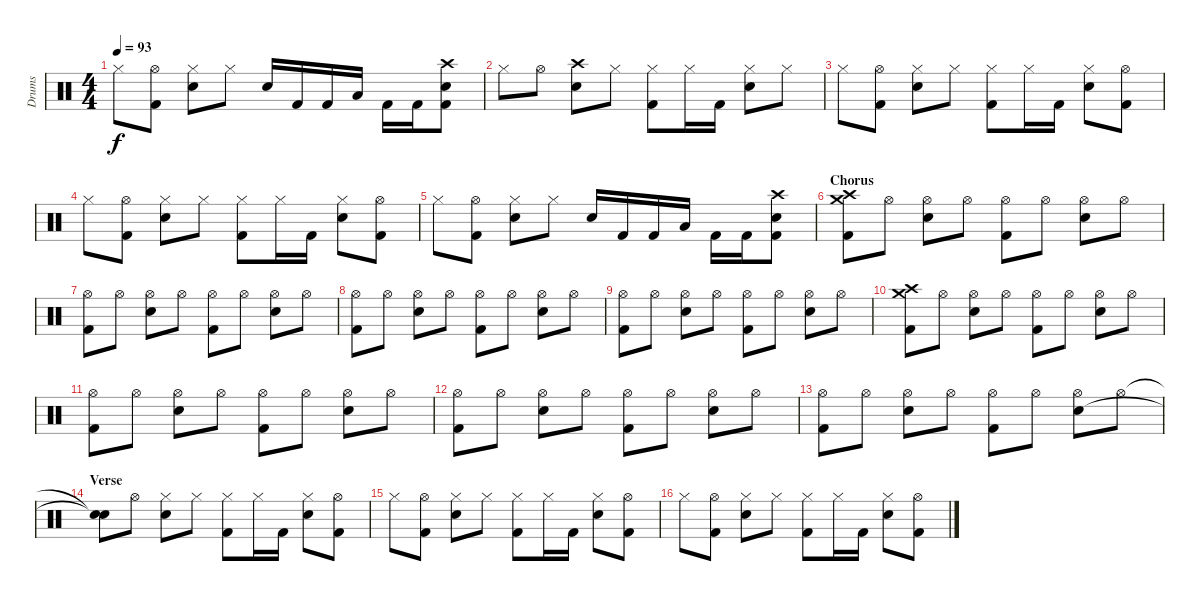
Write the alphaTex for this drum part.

\track ("Drums" "Drums") {instrument percussion}
\staff {score}
\articulation defaults
\ts (4 4)
\tempo 93
\clef neutral
\ks c "Hi-Hat (closed)".8{dy f}
("Hi-Hat (open)" "Kick (hit) 2").8 ("Hi-Hat (closed)" "Electric Snare (hit)").8 "Hi-Hat (closed)".8 "Electric Snare (hit)".16 "Kick (hit) 2".16 "Kick (hit) 2".16 "Low Tom (hit)".16 "Kick (hit) 2".16 "Kick (hit) 2".16 ("Crash high (hit)" "Electric Snare (hit)" "Kick (hit) 2").8 |
"Hi-Hat (closed)".8 "Hi-Hat (open)".8 ("Crash high (hit)" "Electric Snare (hit)").8 "Hi-Hat (closed)".8 ("Hi-Hat (closed)" "Kick (hit) 2").8 "Hi-Hat (closed)".16 "Kick (hit) 2".16 ("Hi-Hat (closed)" "Electric Snare (hit)").8 "Hi-Hat (closed)".8 |
"Hi-Hat (closed)".8 ("Hi-Hat (open)" "Kick (hit) 2").8 ("Hi-Hat (closed)" "Electric Snare (hit)").8 "Hi-Hat (closed)".8 ("Hi-Hat (closed)" "Kick (hit) 2").8 "Hi-Hat (closed)".16 "Kick (hit) 2".16 ("Hi-Hat (closed)" "Electric Snare (hit)").8 ("Hi-Hat (open)" "Kick (hit) 2").8 |
"Hi-Hat (closed)".8 ("Hi-Hat (open)" "Kick (hit) 2").8 ("Hi-Hat (closed)" "Electric Snare (hit)").8 "Hi-Hat (closed)".8 ("Hi-Hat (closed)" "Kick (hit) 2").8 "Hi-Hat (closed)".16 "Kick (hit) 2".16 ("Hi-Hat (closed)" "Electric Snare (hit)").8 ("Hi-Hat (open)" "Kick (hit) 2").8 |
"Hi-Hat (closed)".8 ("Hi-Hat (open)" "Kick (hit) 2").8 ("Hi-Hat (closed)" "Electric Snare (hit)").8 "Hi-Hat (closed)".8 "Electric Snare (hit)".16 "Kick (hit) 2".16 "Kick (hit) 2".16 "Low Tom (hit)".16 "Kick (hit) 2".16 "Kick (hit) 2".16 ("Crash high (hit)" "Electric Snare (hit)" "Kick (hit) 2").8 |
\section ("" "Chorus")
("Crash high (hit)" "Crash medium (hit)" "Kick (hit) 2").8 "Hi-Hat (open)".8 ("Hi-Hat (open)" "Electric Snare (hit)").8 "Hi-Hat (open)".8 ("Hi-Hat (open)" "Kick (hit) 2").8 "Hi-Hat (open)".8 ("Hi-Hat (open)" "Electric Snare (hit)").8 "Hi-Hat (open)".8 |
("Hi-Hat (open)" "Kick (hit) 2").8 "Hi-Hat (open)".8 ("Hi-Hat (open)" "Electric Snare (hit)").8 "Hi-Hat (open)".8 ("Hi-Hat (open)" "Kick (hit) 2").8 "Hi-Hat (open)".8 ("Hi-Hat (open)" "Electric Snare (hit)").8 "Hi-Hat (open)".8 |
("Hi-Hat (open)" "Kick (hit) 2").8 "Hi-Hat (open)".8 ("Hi-Hat (open)" "Electric Snare (hit)").8 "Hi-Hat (open)".8 ("Hi-Hat (open)" "Kick (hit) 2").8 "Hi-Hat (open)".8 ("Hi-Hat (open)" "Electric Snare (hit)").8 "Hi-Hat (open)".8 |
("Hi-Hat (open)" "Kick (hit) 2").8 "Hi-Hat (open)".8 ("Hi-Hat (open)" "Electric Snare (hit)").8 "Hi-Hat (open)".8 ("Hi-Hat (open)" "Kick (hit) 2").8 "Hi-Hat (open)".8 ("Hi-Hat (open)" "Electric Snare (hit)").8 "Hi-Hat (open)".8 |
("Crash high (hit)" "Crash medium (hit)" "Kick (hit) 2").8 "Hi-Hat (open)".8 ("Hi-Hat (open)" "Electric Snare (hit)").8 "Hi-Hat (open)".8 ("Hi-Hat (open)" "Kick (hit) 2").8 "Hi-Hat (open)".8 ("Hi-Hat (open)" "Electric Snare (hit)").8 "Hi-Hat (open)".8 |
("Hi-Hat (open)" "Kick (hit) 2").8 "Hi-Hat (open)".8 ("Hi-Hat (open)" "Electric Snare (hit)").8 "Hi-Hat (open)".8 ("Hi-Hat (open)" "Kick (hit) 2").8 "Hi-Hat (open)".8 ("Hi-Hat (open)" "Electric Snare (hit)").8 "Hi-Hat (open)".8 |
("Hi-Hat (open)" "Kick (hit) 2").8 "Hi-Hat (open)".8 ("Hi-Hat (open)" "Electric Snare (hit)").8 "Hi-Hat (open)".8 ("Hi-Hat (open)" "Kick (hit) 2").8 "Hi-Hat (open)".8 ("Hi-Hat (open)" "Electric Snare (hit)").8 "Hi-Hat (open)".8 |
("Hi-Hat (open)" "Kick (hit) 2").8 "Hi-Hat (open)".8 ("Hi-Hat (open)" "Electric Snare (hit)").8 "Hi-Hat (open)".8 ("Hi-Hat (open)" "Kick (hit) 2").8 "Hi-Hat (open)".8 ("Hi-Hat (open)" "Electric Snare (hit)").8 "Hi-Hat (open)".8 |
\section ("" "Verse")
("Snare (hit)"{t} "Snare (hit)"{t}).8 "Hi-Hat (open)".8 ("Hi-Hat (closed)" "Electric Snare (hit)").8 "Hi-Hat (closed)".8 ("Hi-Hat (closed)" "Kick (hit) 2").8 "Hi-Hat (closed)".16 "Kick (hit) 2".16 ("Hi-Hat (closed)" "Electric Snare (hit)").8 ("Hi-Hat (open)" "Kick (hit) 2").8 |
"Hi-Hat (closed)".8 ("Hi-Hat (open)" "Kick (hit) 2").8 ("Hi-Hat (closed)" "Electric Snare (hit)").8 "Hi-Hat (closed)".8 ("Hi-Hat (closed)" "Kick (hit) 2").8 "Hi-Hat (closed)".16 "Kick (hit) 2".16 ("Hi-Hat (closed)" "Electric Snare (hit)").8 ("Hi-Hat (open)" "Kick (hit) 2").8 |
"Hi-Hat (closed)".8 ("Hi-Hat (open)" "Kick (hit) 2").8 ("Hi-Hat (closed)" "Electric Snare (hit)").8 "Hi-Hat (closed)".8 ("Hi-Hat (closed)" "Kick (hit) 2").8 "Hi-Hat (closed)".16 "Kick (hit) 2".16 ("Hi-Hat (closed)" "Electric Snare (hit)").8 ("Hi-Hat (open)" "Kick (hit) 2").8
